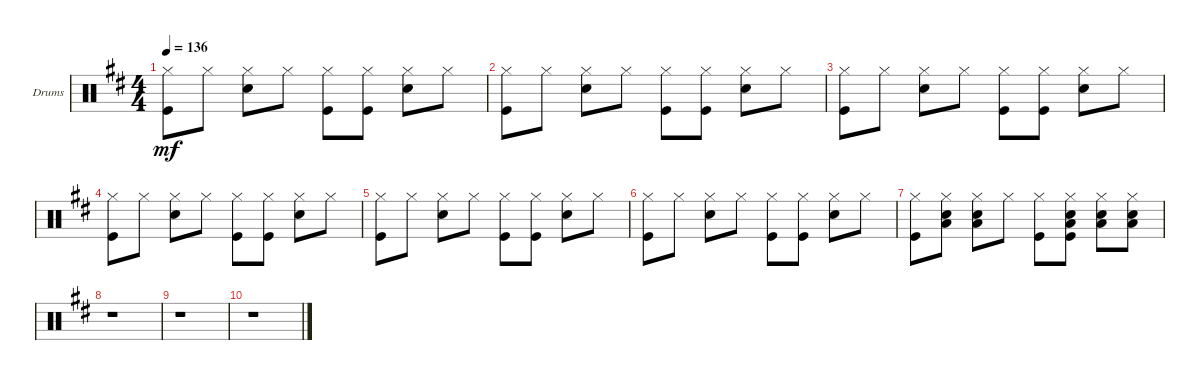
\defaultSystemsLayout 4
\bracketExtendMode groupsimilarinstruments
\firstSystemTrackNameOrientation horizontal
\otherSystemsTrackNameOrientation horizontal
\track ("Greg Bissonette Drums" "Drums") {instrument percussion}
\staff {score}
\articulation defaults
\ts (4 4)
\tempo 136
\clef neutral
\ks d
("Kick (hit)" "Hi-Hat (closed)").8{dy mf} "Hi-Hat (closed)".8 ("Snare (hit) 2" "Hi-Hat (closed)").8 "Hi-Hat (closed)".8 ("Kick (hit)" "Hi-Hat (closed)").8 ("Kick (hit)" "Hi-Hat (closed)").8 ("Snare (hit) 2" "Hi-Hat (closed)").8 "Hi-Hat (closed)".8 |
("Kick (hit)" "Hi-Hat (closed)").8 "Hi-Hat (closed)".8 ("Snare (hit) 2" "Hi-Hat (closed)").8 "Hi-Hat (closed)".8 ("Kick (hit)" "Hi-Hat (closed)").8 ("Kick (hit)" "Hi-Hat (closed)").8 ("Snare (hit) 2" "Hi-Hat (closed)").8 "Hi-Hat (closed)".8 |
("Kick (hit)" "Hi-Hat (closed)").8 "Hi-Hat (closed)".8 ("Snare (hit) 2" "Hi-Hat (closed)").8 "Hi-Hat (closed)".8 ("Kick (hit)" "Hi-Hat (closed)").8 ("Kick (hit)" "Hi-Hat (closed)").8 ("Snare (hit) 2" "Hi-Hat (closed)").8 "Hi-Hat (closed)".8 |
("Kick (hit)" "Hi-Hat (closed)").8 "Hi-Hat (closed)".8 ("Snare (hit) 2" "Hi-Hat (closed)").8 "Hi-Hat (closed)".8 ("Kick (hit)" "Hi-Hat (closed)").8 ("Kick (hit)" "Hi-Hat (closed)").8 ("Snare (hit) 2" "Hi-Hat (closed)").8 "Hi-Hat (closed)".8 |
("Kick (hit)" "Hi-Hat (closed)").8 "Hi-Hat (closed)".8 ("Snare (hit) 2" "Hi-Hat (closed)").8 "Hi-Hat (closed)".8 ("Kick (hit)" "Hi-Hat (closed)").8 ("Kick (hit)" "Hi-Hat (closed)").8 ("Snare (hit) 2" "Hi-Hat (closed)").8 "Hi-Hat (closed)".8 |
("Kick (hit)" "Hi-Hat (closed)").8 "Hi-Hat (closed)".8 ("Snare (hit) 2" "Hi-Hat (closed)").8 "Hi-Hat (closed)".8 ("Kick (hit)" "Hi-Hat (closed)").8 ("Kick (hit)" "Hi-Hat (closed)").8 ("Snare (hit) 2" "Hi-Hat (closed)").8 "Hi-Hat (closed)".8 |
("Kick (hit)" "Hi-Hat (closed)").8 ("Snare (hit) 2" "Hi-Hat (closed)" "Low Tom (hit)").8 ("Snare (hit) 2" "Hi-Hat (closed)" "Low Tom (hit)").8 "Hi-Hat (closed)".8 ("Kick (hit)" "Hi-Hat (closed)").8 ("Kick (hit)" "Snare (hit) 2" "Hi-Hat (closed)" "Low Tom (hit)").8 ("Snare (hit) 2" "Hi-Hat (closed)" "Low Tom (hit)").8 ("Snare (hit) 2" "Hi-Hat (closed)" "Low Tom (hit)").8 |
r.1 |
r.1 |
r.1
